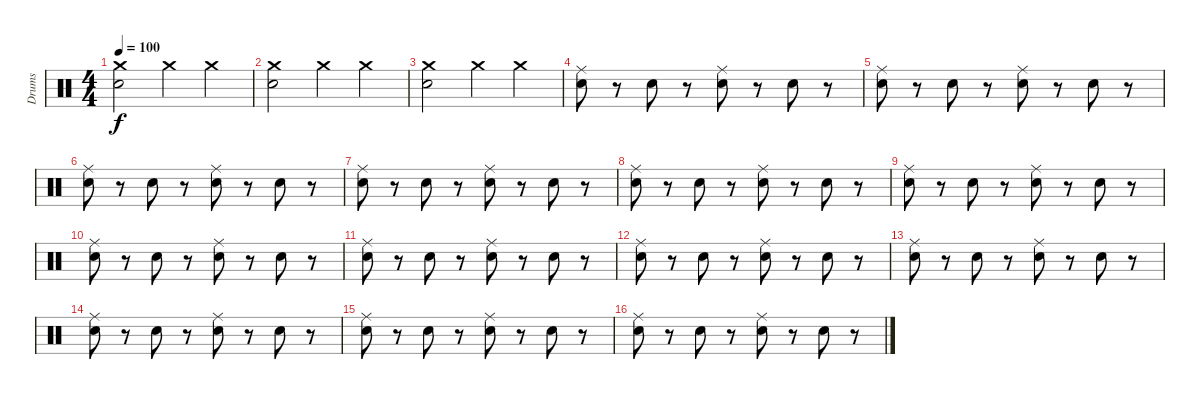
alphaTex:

\track ("Drums" "Drums") {instrument percussion}
\staff {score}
\articulation defaults
\ts (4 4)
\tempo 100
\clef neutral
\ks c
("Crash medium (hit)" "Snare (hit) 2").2{dy f} "Crash medium (hit)".4 "Crash medium (hit)".4 |
("Crash medium (hit)" "Snare (hit) 2").2 "Crash medium (hit)".4 "Crash medium (hit)".4 |
("Crash medium (hit)" "Snare (hit) 2").2 "Crash medium (hit)".4 "Crash medium (hit)".4 |
("Ride (middle)" "Snare (hit) 2").8 r.8 "Snare (hit) 2".8 r.8 ("Ride (middle)" "Snare (hit) 2").8 r.8 "Snare (hit) 2".8 r.8 |
("Ride (middle)" "Snare (hit) 2").8 r.8 "Snare (hit) 2".8 r.8 ("Ride (middle)" "Snare (hit) 2").8 r.8 "Snare (hit) 2".8 r.8 |
("Ride (middle)" "Snare (hit) 2").8 r.8 "Snare (hit) 2".8 r.8 ("Ride (middle)" "Snare (hit) 2").8 r.8 "Snare (hit) 2".8 r.8 |
("Ride (middle)" "Snare (hit) 2").8 r.8 "Snare (hit) 2".8 r.8 ("Ride (middle)" "Snare (hit) 2").8 r.8 "Snare (hit) 2".8 r.8 |
("Ride (middle)" "Snare (hit) 2").8 r.8 "Snare (hit) 2".8 r.8 ("Ride (middle)" "Snare (hit) 2").8 r.8 "Snare (hit) 2".8 r.8 |
("Ride (middle)" "Snare (hit) 2").8 r.8 "Snare (hit) 2".8 r.8 ("Ride (middle)" "Snare (hit) 2").8 r.8 "Snare (hit) 2".8 r.8 |
("Ride (middle)" "Snare (hit) 2").8 r.8 "Snare (hit) 2".8 r.8 ("Ride (middle)" "Snare (hit) 2").8 r.8 "Snare (hit) 2".8 r.8 |
("Ride (middle)" "Snare (hit) 2").8 r.8 "Snare (hit) 2".8 r.8 ("Ride (middle)" "Snare (hit) 2").8 r.8 "Snare (hit) 2".8 r.8 |
("Ride (middle)" "Snare (hit) 2").8 r.8 "Snare (hit) 2".8 r.8 ("Ride (middle)" "Snare (hit) 2").8 r.8 "Snare (hit) 2".8 r.8 |
("Ride (middle)" "Snare (hit) 2").8 r.8 "Snare (hit) 2".8 r.8 ("Ride (middle)" "Snare (hit) 2").8 r.8 "Snare (hit) 2".8 r.8 |
("Ride (middle)" "Snare (hit) 2").8 r.8 "Snare (hit) 2".8 r.8 ("Ride (middle)" "Snare (hit) 2").8 r.8 "Snare (hit) 2".8 r.8 |
("Ride (middle)" "Snare (hit) 2").8 r.8 "Snare (hit) 2".8 r.8 ("Ride (middle)" "Snare (hit) 2").8 r.8 "Snare (hit) 2".8 r.8 |
("Ride (middle)" "Snare (hit) 2").8 r.8 "Snare (hit) 2".8 r.8 ("Ride (middle)" "Snare (hit) 2").8 r.8 "Snare (hit) 2".8 r.8
